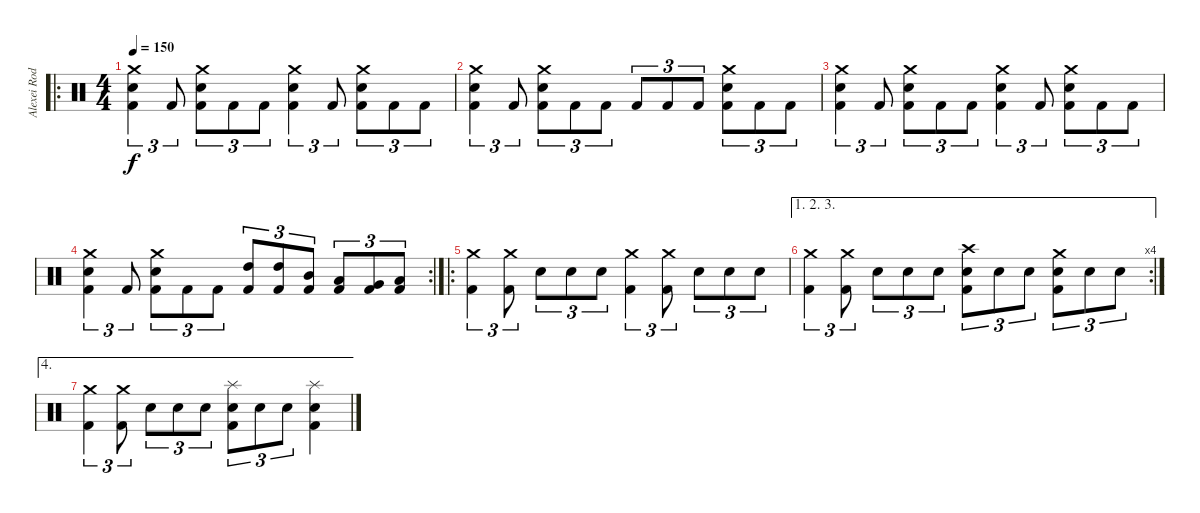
\track ("Alexei Rodriguez" "Alexei Rod") {instrument percussion}
\staff {score}
\articulation defaults
\ro
\ts (4 4)
\tempo 150
\clef neutral
\ks c
("Crash medium (hit)" "Electric Snare (hit)" "Kick (hit) 2").4{tu (3 2) dy f} "Kick (hit) 2".8{tu (3 2)} ("Crash medium (hit)" "Electric Snare (hit)" "Kick (hit) 2").8{tu (3 2)} "Kick (hit) 2".8{tu (3 2)} "Kick (hit) 2".8{tu (3 2)} ("Crash medium (hit)" "Electric Snare (hit)" "Kick (hit) 2").4{tu (3 2)} "Kick (hit) 2".8{tu (3 2)} ("Crash medium (hit)" "Electric Snare (hit)" "Kick (hit) 2").8{tu (3 2)} "Kick (hit) 2".8{tu (3 2)} "Kick (hit) 2".8{tu (3 2)} |
("Crash medium (hit)" "Electric Snare (hit)" "Kick (hit) 2").4{tu (3 2)} "Kick (hit) 2".8{tu (3 2)} ("Crash medium (hit)" "Electric Snare (hit)" "Kick (hit) 2").8{tu (3 2)} "Kick (hit) 2".8{tu (3 2)} "Kick (hit) 2".8{tu (3 2)} "Kick (hit) 2".8{tu (3 2)} "Kick (hit) 2".8{tu (3 2)} "Kick (hit) 2".8{tu (3 2)} ("Crash medium (hit)" "Electric Snare (hit)" "Kick (hit) 2").8{tu (3 2)} "Kick (hit) 2".8{tu (3 2)} "Kick (hit) 2".8{tu (3 2)} |
("Crash medium (hit)" "Electric Snare (hit)" "Kick (hit) 2").4{tu (3 2)} "Kick (hit) 2".8{tu (3 2)} ("Crash medium (hit)" "Electric Snare (hit)" "Kick (hit) 2").8{tu (3 2)} "Kick (hit) 2".8{tu (3 2)} "Kick (hit) 2".8{tu (3 2)} ("Crash medium (hit)" "Electric Snare (hit)" "Kick (hit) 2").4{tu (3 2)} "Kick (hit) 2".8{tu (3 2)} ("Crash medium (hit)" "Electric Snare (hit)" "Kick (hit) 2").8{tu (3 2)} "Kick (hit) 2".8{tu (3 2)} "Kick (hit) 2".8{tu (3 2)} |
\rc 2
("Crash medium (hit)" "Electric Snare (hit)" "Kick (hit) 2").4{tu (3 2)} "Kick (hit) 2".8{tu (3 2)} ("Crash medium (hit)" "Electric Snare (hit)" "Kick (hit) 2").8{tu (3 2)} "Kick (hit) 2".8{tu (3 2)} "Kick (hit) 2".8{tu (3 2)} ("High Tom (hit)" "Kick (hit) 2").8{tu (3 2)} ("High Tom (hit)" "Kick (hit) 2").8{tu (3 2)} ("Mid Tom (hit)" "Kick (hit) 2").8{tu (3 2)} ("Low Tom (hit)" "Kick (hit) 2").8{tu (3 2)} ("Very Low Tom (hit)" "Kick (hit) 2").8{tu (3 2)} ("Low Floor Tom (hit)" "Kick (hit) 2").8{tu (3 2)} |
\ro
("Crash medium (hit)" "Kick (hit) 2").4{tu (3 2)} ("Crash medium (hit)" "Kick (hit) 2").8{tu (3 2)} "Electric Snare (hit)".8{tu (3 2)} "Electric Snare (hit)".8{tu (3 2)} "Electric Snare (hit)".8{tu (3 2)} ("Crash medium (hit)" "Kick (hit) 2").4{tu (3 2)} ("Crash medium (hit)" "Kick (hit) 2").8{tu (3 2)} "Electric Snare (hit)".8{tu (3 2)} "Electric Snare (hit)".8{tu (3 2)} "Electric Snare (hit)".8{tu (3 2)} |
\ae (1 2 3)
\rc 4
("Crash medium (hit)" "Kick (hit) 2").4{tu (3 2)} ("Crash medium (hit)" "Kick (hit) 2").8{tu (3 2)} "Electric Snare (hit)".8{tu (3 2)} "Electric Snare (hit)".8{tu (3 2)} "Electric Snare (hit)".8{tu (3 2)} ("Crash high (hit)" "Electric Snare (hit)" "Kick (hit) 2").8{tu (3 2)} "Electric Snare (hit)".8{tu (3 2)} "Electric Snare (hit)".8{tu (3 2)} ("Crash medium (hit)" "Electric Snare (hit)" "Kick (hit) 2").8{tu (3 2)} "Electric Snare (hit)".8{tu (3 2)} "Electric Snare (hit)".8{tu (3 2)} |
\ae 4
("Crash medium (hit)" "Kick (hit) 2").4{tu (3 2)} ("Crash medium (hit)" "Kick (hit) 2").8{tu (3 2)} "Electric Snare (hit)".8{tu (3 2)} "Electric Snare (hit)".8{tu (3 2)} "Electric Snare (hit)".8{tu (3 2)} ("Splash (hit)" "Electric Snare (hit)" "Kick (hit) 2").8{tu (3 2)} "Electric Snare (hit)".8{tu (3 2)} "Electric Snare (hit)".8{tu (3 2)} ("Splash (hit)" "Electric Snare (hit)" "Kick (hit) 2").4
